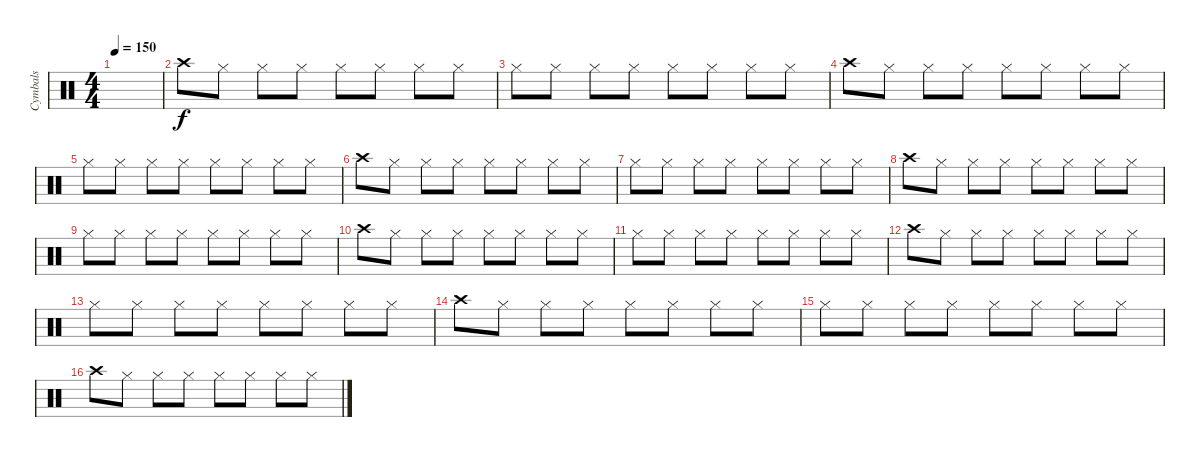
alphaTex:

\track ("Cymbals" "Cymbals") {instrument percussion}
\staff {score}
\articulation defaults
\ts (4 4)
\tempo 150
\clef neutral
\ks c
|
"Crash high (hit)".8 "Hi-Hat (closed)".8 "Hi-Hat (closed)".8 "Hi-Hat (closed)".8 "Hi-Hat (closed)".8 "Hi-Hat (closed)".8 "Hi-Hat (closed)".8 "Hi-Hat (closed)".8 |
"Hi-Hat (closed)".8 "Hi-Hat (closed)".8 "Hi-Hat (closed)".8 "Hi-Hat (closed)".8 "Hi-Hat (closed)".8 "Hi-Hat (closed)".8 "Hi-Hat (closed)".8 "Hi-Hat (closed)".8 |
"Crash high (hit)".8 "Hi-Hat (closed)".8 "Hi-Hat (closed)".8 "Hi-Hat (closed)".8 "Hi-Hat (closed)".8 "Hi-Hat (closed)".8 "Hi-Hat (closed)".8 "Hi-Hat (closed)".8 |
"Hi-Hat (closed)".8 "Hi-Hat (closed)".8 "Hi-Hat (closed)".8 "Hi-Hat (closed)".8 "Hi-Hat (closed)".8 "Hi-Hat (closed)".8 "Hi-Hat (closed)".8 "Hi-Hat (closed)".8 |
"Crash high (hit)".8 "Hi-Hat (closed)".8 "Hi-Hat (closed)".8 "Hi-Hat (closed)".8 "Hi-Hat (closed)".8 "Hi-Hat (closed)".8 "Hi-Hat (closed)".8 "Hi-Hat (closed)".8 |
"Hi-Hat (closed)".8 "Hi-Hat (closed)".8 "Hi-Hat (closed)".8 "Hi-Hat (closed)".8 "Hi-Hat (closed)".8 "Hi-Hat (closed)".8 "Hi-Hat (closed)".8 "Hi-Hat (closed)".8 |
"Crash high (hit)".8 "Hi-Hat (closed)".8 "Hi-Hat (closed)".8 "Hi-Hat (closed)".8 "Hi-Hat (closed)".8 "Hi-Hat (closed)".8 "Hi-Hat (closed)".8 "Hi-Hat (closed)".8 |
"Hi-Hat (closed)".8 "Hi-Hat (closed)".8 "Hi-Hat (closed)".8 "Hi-Hat (closed)".8 "Hi-Hat (closed)".8 "Hi-Hat (closed)".8 "Hi-Hat (closed)".8 "Hi-Hat (closed)".8 |
"Crash high (hit)".8 "Hi-Hat (closed)".8 "Hi-Hat (closed)".8 "Hi-Hat (closed)".8 "Hi-Hat (closed)".8 "Hi-Hat (closed)".8 "Hi-Hat (closed)".8 "Hi-Hat (closed)".8 |
"Hi-Hat (closed)".8 "Hi-Hat (closed)".8 "Hi-Hat (closed)".8 "Hi-Hat (closed)".8 "Hi-Hat (closed)".8 "Hi-Hat (closed)".8 "Hi-Hat (closed)".8 "Hi-Hat (closed)".8 |
"Crash high (hit)".8 "Hi-Hat (closed)".8 "Hi-Hat (closed)".8 "Hi-Hat (closed)".8 "Hi-Hat (closed)".8 "Hi-Hat (closed)".8 "Hi-Hat (closed)".8 "Hi-Hat (closed)".8 |
"Hi-Hat (closed)".8 "Hi-Hat (closed)".8 "Hi-Hat (closed)".8 "Hi-Hat (closed)".8 "Hi-Hat (closed)".8 "Hi-Hat (closed)".8 "Hi-Hat (closed)".8 "Hi-Hat (closed)".8 |
"Crash high (hit)".8 "Hi-Hat (closed)".8 "Hi-Hat (closed)".8 "Hi-Hat (closed)".8 "Hi-Hat (closed)".8 "Hi-Hat (closed)".8 "Hi-Hat (closed)".8 "Hi-Hat (closed)".8 |
"Hi-Hat (closed)".8 "Hi-Hat (closed)".8 "Hi-Hat (closed)".8 "Hi-Hat (closed)".8 "Hi-Hat (closed)".8 "Hi-Hat (closed)".8 "Hi-Hat (closed)".8 "Hi-Hat (closed)".8 |
"Crash high (hit)".8 "Hi-Hat (closed)".8 "Hi-Hat (closed)".8 "Hi-Hat (closed)".8 "Hi-Hat (closed)".8 "Hi-Hat (closed)".8 "Hi-Hat (closed)".8 "Hi-Hat (closed)".8
